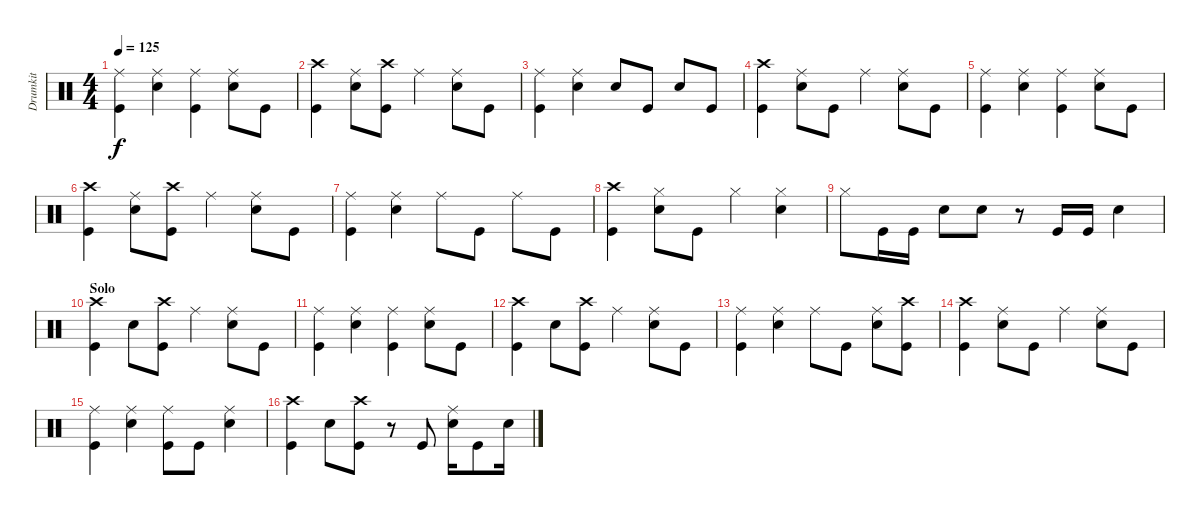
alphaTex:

\track ("Drumkit" "Drumkit") {instrument percussion}
\staff {score}
\articulation defaults
\ts (4 4)
\tempo 125
\clef neutral
\ks c
("Ride (middle)" "Kick (hit)").4{dy f} ("Ride (middle)" "Snare (hit) 2").4 ("Ride (middle)" "Kick (hit)").4 ("Ride (middle)" "Snare (hit) 2").8 "Kick (hit)".8 |
("Crash high (hit)" "Kick (hit)").4 ("Ride (middle)" "Snare (hit) 2").8 ("Crash high (hit)" "Kick (hit)").8 "Ride (middle)".4 ("Ride (middle)" "Snare (hit) 2").8 "Kick (hit)".8 |
("Ride (middle)" "Kick (hit)").4 ("Ride (middle)" "Snare (hit) 2").4 "Snare (hit) 2".8 "Kick (hit)".8 "Snare (hit) 2".8 "Kick (hit)".8 |
("Crash high (hit)" "Kick (hit)").4 ("Ride (middle)" "Snare (hit) 2").8 "Kick (hit)".8 "Ride (middle)".4 ("Ride (middle)" "Snare (hit) 2").8 "Kick (hit)".8 |
("Ride (middle)" "Kick (hit)").4 ("Ride (middle)" "Snare (hit) 2").4 ("Ride (middle)" "Kick (hit)").4 ("Ride (middle)" "Snare (hit) 2").8 "Kick (hit)".8 |
("Crash high (hit)" "Kick (hit)").4 ("Ride (middle)" "Snare (hit) 2").8 ("Crash high (hit)" "Kick (hit)").8 "Ride (middle)".4 ("Ride (middle)" "Snare (hit) 2").8 "Kick (hit)".8 |
("Ride (middle)" "Kick (hit)").4 ("Ride (middle)" "Snare (hit) 2").4 "Ride (middle)".8 "Kick (hit)".8 "Ride (middle)".8 "Kick (hit)".8 |
("Crash high (hit)" "Kick (hit)").4 ("Hi-Hat (closed)" "Snare (hit) 2").8 "Kick (hit)".8 "Hi-Hat (closed)".4 ("Hi-Hat (closed)" "Snare (hit) 2").4 |
"Hi-Hat (closed)".8 "Kick (hit)".16 "Kick (hit)".16 "Snare (hit) 2".8 "Snare (hit) 2".8 r.8 "Kick (hit)".16 "Kick (hit)".16 "Snare (hit) 2".4 |
\section ("" "Solo")
("Crash high (hit)" "Kick (hit)").4 "Snare (hit) 2".8 ("Crash high (hit)" "Kick (hit)").8 "Ride (middle)".4 ("Ride (middle)" "Snare (hit) 2").8 "Kick (hit)".8 |
("Ride (middle)" "Kick (hit)").4 ("Ride (middle)" "Snare (hit) 2").4 ("Ride (middle)" "Kick (hit)").4 ("Ride (middle)" "Snare (hit) 2").8 "Kick (hit)".8 |
("Crash high (hit)" "Kick (hit)").4 "Snare (hit) 2".8 ("Crash high (hit)" "Kick (hit)").8 "Ride (middle)".4 ("Ride (middle)" "Snare (hit) 2").8 "Kick (hit)".8 |
("Ride (middle)" "Kick (hit)").4 ("Ride (middle)" "Snare (hit) 2").4 "Ride (middle)".8 "Kick (hit)".8 ("Ride (middle)" "Snare (hit) 2").8 ("Crash high (hit)" "Kick (hit)").8 |
("Crash high (hit)" "Kick (hit)").4 ("Ride (middle)" "Snare (hit) 2").8 "Kick (hit)".8 "Ride (middle)".4 ("Ride (middle)" "Snare (hit) 2").8 "Kick (hit)".8 |
("Ride (middle)" "Kick (hit)").4 ("Ride (middle)" "Snare (hit) 2").4 ("Ride (middle)" "Kick (hit)").8 "Kick (hit)".8 ("Ride (middle)" "Snare (hit) 2").4 |
("Crash high (hit)" "Kick (hit)").4 "Snare (hit) 2".8 ("Crash high (hit)" "Kick (hit)").8 r.8 "Kick (hit)".8 ("Ride (middle)" "Snare (hit) 2").16 "Kick (hit)".8 "Snare (hit) 2".16
